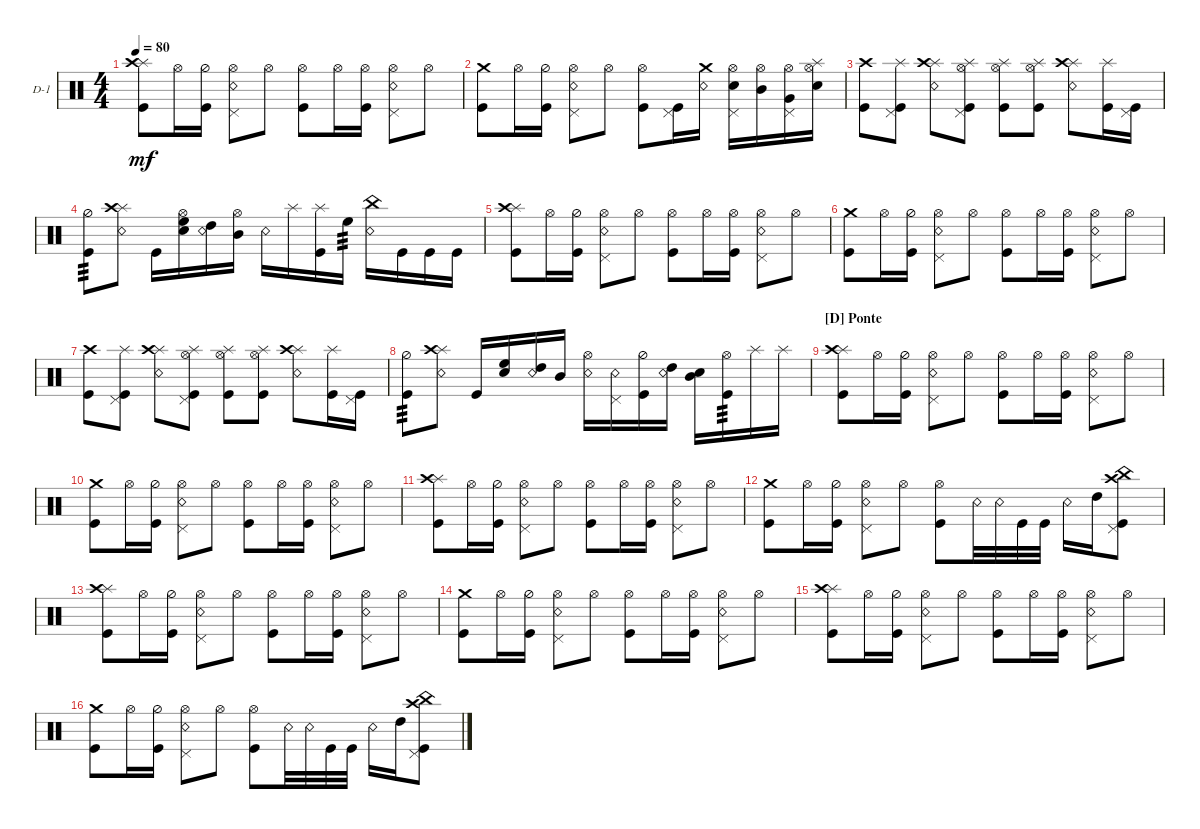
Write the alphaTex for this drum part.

\defaultSystemsLayout 4
\bracketExtendMode groupsimilarinstruments
\firstSystemTrackNameOrientation horizontal
\otherSystemsTrackNameOrientation horizontal
\track ("Drums" "D-1") {multiBarRest instrument percussion}
\staff {score}
\articulation defaults
\ts (4 4)
\tempo 80
\clef neutral
\ks aminor
("Kick (hit)" "Splash (hit)" "Crash high (hit)").8{dy mf} "Hi-Hat (open)".16 ("Hi-Hat (half)" "Kick (hit)").16 ("Hi-Hat (open)" "Pedal Hi-Hat (hit)" "Snare (rim shot)").8 "Hi-Hat (open)".8 ("Kick (hit)" "Hi-Hat (open)").8 "Hi-Hat (open)".16 ("Hi-Hat (open)" "Kick (hit)").16 ("Hi-Hat (open)" "Pedal Hi-Hat (hit)" "Snare (rim shot)").8 "Hi-Hat (open)".8 |
("Kick (hit)" "Crash medium (hit)").8 "Hi-Hat (open)".16 ("Hi-Hat (half)" "Kick (hit)").16 ("Hi-Hat (open)" "Pedal Hi-Hat (hit)" "Snare (rim shot)").8 "Hi-Hat (open)".8 ("Kick (hit)" "Hi-Hat (open)").8 ("Kick (hit)" "Pedal Hi-Hat (hit)").16 ("Snare (rim shot)" "Crash medium (hit)").16 ("Snare (hit) 2" "Pedal Hi-Hat (hit)" "Hi-Hat (open)").16 ("Mid Tom (hit)" "Hi-Hat (open)").16 ("Very Low Tom (hit)" "Pedal Hi-Hat (hit)" "Hi-Hat (open)").16 ("Snare (hit) 2" "Hi-Hat (open)" "Splash (hit)").16 |
("Crash high (hit)" "Kick (hit)").8 ("Kick (hit)" "Splash (hit)" "Pedal Hi-Hat (hit)").8 ("Splash (hit)" "Snare (rim shot)" "Crash high (hit)").8 ("Splash (hit)" "Pedal Hi-Hat (hit)" "Kick (hit)" "Hi-Hat (open)").8 ("Splash (hit)" "Kick (hit)" "Hi-Hat (open)").8 ("Splash (hit)" "Kick (hit)" "Hi-Hat (open)").8 ("Splash (hit)" "Snare (rim shot)" "Crash high (hit)").8 ("Splash (hit)" "Kick (hit)").16 ("Kick (hit)" "Pedal Hi-Hat (hit)").16 |
("Kick (hit)" "Hi-Hat (half)").8{tp 3} ("Snare (rim shot)" "Splash (hit)" "Crash high (hit)").8 "Kick (hit)".16 ("High Floor Tom (hit)" "Snare (hit) 2" "Hi-Hat (open)").16 ("High Tom (hit)" "Snare (rim shot)").16 ("Mid Tom (hit)" "Hi-Hat (open)").16 "Snare (rim shot)".16 "Splash (hit)".16 ("Splash (hit)" "Kick (hit)").16 "High Floor Tom (hit)".16{tp 3} ("Snare (rim shot)" "China (hit)").16 "Kick (hit)".16 "Kick (hit)".16 "Kick (hit)".16 |
("Kick (hit)" "Splash (hit)" "Crash high (hit)").8 "Hi-Hat (open)".16 ("Hi-Hat (half)" "Kick (hit)").16 ("Hi-Hat (open)" "Pedal Hi-Hat (hit)" "Snare (rim shot)").8 "Hi-Hat (open)".8 ("Kick (hit)" "Hi-Hat (open)").8 "Hi-Hat (open)".16 ("Hi-Hat (open)" "Kick (hit)").16 ("Hi-Hat (open)" "Pedal Hi-Hat (hit)" "Snare (rim shot)").8 "Hi-Hat (open)".8 |
("Kick (hit)" "Crash medium (hit)").8 "Hi-Hat (open)".16 ("Hi-Hat (half)" "Kick (hit)").16 ("Hi-Hat (open)" "Pedal Hi-Hat (hit)" "Snare (rim shot)").8 "Hi-Hat (open)".8 ("Kick (hit)" "Hi-Hat (open)").8 "Hi-Hat (open)".16 ("Hi-Hat (open)" "Kick (hit)").16 ("Hi-Hat (open)" "Pedal Hi-Hat (hit)" "Snare (rim shot)").8 "Hi-Hat (open)".8 |
("Crash high (hit)" "Kick (hit)").8 ("Kick (hit)" "Splash (hit)" "Pedal Hi-Hat (hit)").8 ("Splash (hit)" "Snare (rim shot)" "Crash high (hit)").8 ("Splash (hit)" "Pedal Hi-Hat (hit)" "Kick (hit)" "Hi-Hat (open)").8 ("Splash (hit)" "Kick (hit)" "Hi-Hat (open)").8 ("Splash (hit)" "Kick (hit)" "Hi-Hat (open)").8 ("Splash (hit)" "Snare (rim shot)" "Crash high (hit)").8 ("Splash (hit)" "Kick (hit)").16 ("Kick (hit)" "Pedal Hi-Hat (hit)").16 |
("Kick (hit)" "Hi-Hat (half)").8{tp 3} ("Snare (rim shot)" "Splash (hit)" "Crash high (hit)").8 "Kick (hit)".16 ("High Floor Tom (hit)" "Snare (hit) 2").16 ("High Tom (hit)" "Snare (rim shot)").16 "Mid Tom (hit)".16 ("Snare (rim shot)" "Hi-Hat (open)").16 ("Snare (rim shot)" "Pedal Hi-Hat (hit)").16 ("Kick (hit)" "Hi-Hat (half)").16 ("Snare (rim shot)" "High Tom (hit)").16 ("Snare (hit) 2" "Mid Tom (hit)").16 ("Kick (hit)" "Hi-Hat (open)").16{tp 3} "Splash (hit)".16 "Splash (hit)".16 |
\section ("D" "Ponte")
("Kick (hit)" "Splash (hit)" "Crash high (hit)").8 "Hi-Hat (open)".16 ("Hi-Hat (half)" "Kick (hit)").16 ("Hi-Hat (open)" "Pedal Hi-Hat (hit)" "Snare (rim shot)").8 "Hi-Hat (open)".8 ("Kick (hit)" "Hi-Hat (open)").8 "Hi-Hat (open)".16 ("Hi-Hat (open)" "Kick (hit)").16 ("Hi-Hat (open)" "Pedal Hi-Hat (hit)" "Snare (rim shot)").8 "Hi-Hat (open)".8 |
("Kick (hit)" "Crash medium (hit)").8 "Hi-Hat (open)".16 ("Hi-Hat (half)" "Kick (hit)").16 ("Hi-Hat (open)" "Pedal Hi-Hat (hit)" "Snare (rim shot)").8 "Hi-Hat (open)".8 ("Kick (hit)" "Hi-Hat (open)").8 "Hi-Hat (open)".16 ("Hi-Hat (open)" "Kick (hit)").16 ("Hi-Hat (open)" "Pedal Hi-Hat (hit)" "Snare (rim shot)").8 "Hi-Hat (open)".8 |
("Kick (hit)" "Splash (hit)" "Crash high (hit)").8 "Hi-Hat (open)".16 ("Hi-Hat (half)" "Kick (hit)").16 ("Hi-Hat (open)" "Pedal Hi-Hat (hit)" "Snare (rim shot)").8 "Hi-Hat (open)".8 ("Kick (hit)" "Hi-Hat (open)").8 "Hi-Hat (open)".16 ("Hi-Hat (open)" "Kick (hit)").16 ("Hi-Hat (open)" "Pedal Hi-Hat (hit)" "Snare (rim shot)").8 "Hi-Hat (open)".8 |
("Kick (hit)" "Crash medium (hit)").8 "Hi-Hat (open)".16 ("Hi-Hat (half)" "Kick (hit)").16 ("Hi-Hat (open)" "Pedal Hi-Hat (hit)" "Snare (rim shot)").8 "Hi-Hat (open)".8 ("Kick (hit)" "Hi-Hat (open)").8 "Snare (rim shot)".32 "Snare (rim shot)".32 "Kick (hit)".32 "Kick (hit)".32 "Snare (rim shot)".16 "High Tom (hit)".16 ("Kick (hit)" "Pedal Hi-Hat (hit)" "Crash high (hit)" "China (hit)").8 |
("Kick (hit)" "Splash (hit)" "Crash high (hit)").8 "Hi-Hat (open)".16 ("Hi-Hat (half)" "Kick (hit)").16 ("Hi-Hat (open)" "Pedal Hi-Hat (hit)" "Snare (rim shot)").8 "Hi-Hat (open)".8 ("Kick (hit)" "Hi-Hat (open)").8 "Hi-Hat (open)".16 ("Hi-Hat (open)" "Kick (hit)").16 ("Hi-Hat (open)" "Pedal Hi-Hat (hit)" "Snare (rim shot)").8 "Hi-Hat (open)".8 |
("Kick (hit)" "Crash medium (hit)").8 "Hi-Hat (open)".16 ("Hi-Hat (half)" "Kick (hit)").16 ("Hi-Hat (open)" "Pedal Hi-Hat (hit)" "Snare (rim shot)").8 "Hi-Hat (open)".8 ("Kick (hit)" "Hi-Hat (open)").8 "Hi-Hat (open)".16 ("Hi-Hat (open)" "Kick (hit)").16 ("Hi-Hat (open)" "Pedal Hi-Hat (hit)" "Snare (rim shot)").8 "Hi-Hat (open)".8 |
("Kick (hit)" "Splash (hit)" "Crash high (hit)").8 "Hi-Hat (open)".16 ("Hi-Hat (half)" "Kick (hit)").16 ("Hi-Hat (open)" "Pedal Hi-Hat (hit)" "Snare (rim shot)").8 "Hi-Hat (open)".8 ("Kick (hit)" "Hi-Hat (open)").8 "Hi-Hat (open)".16 ("Hi-Hat (open)" "Kick (hit)").16 ("Hi-Hat (open)" "Pedal Hi-Hat (hit)" "Snare (rim shot)").8 "Hi-Hat (open)".8 |
("Kick (hit)" "Crash medium (hit)").8 "Hi-Hat (open)".16 ("Hi-Hat (half)" "Kick (hit)").16 ("Hi-Hat (open)" "Pedal Hi-Hat (hit)" "Snare (rim shot)").8 "Hi-Hat (open)".8 ("Kick (hit)" "Hi-Hat (open)").8 "Snare (rim shot)".32 "Snare (rim shot)".32 "Kick (hit)".32 "Kick (hit)".32 "Snare (rim shot)".16 "High Tom (hit)".16 ("Kick (hit)" "Pedal Hi-Hat (hit)" "Crash high (hit)" "China (hit)").8
